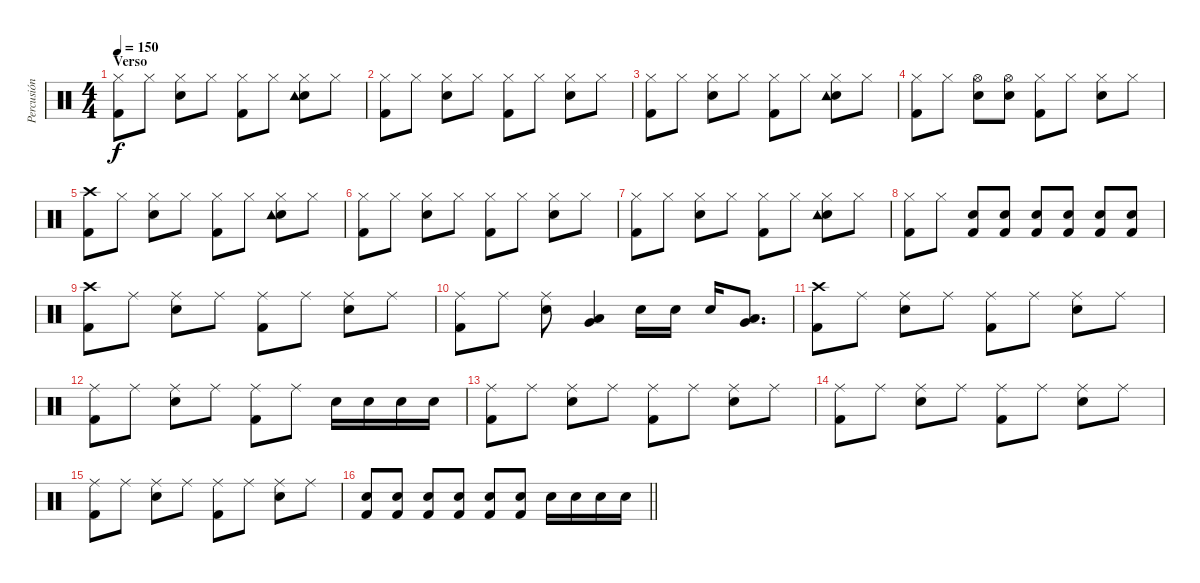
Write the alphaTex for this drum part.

\track ("Percusión" "Percusión") {instrument percussion}
\staff {score}
\articulation defaults
\ts (4 4)
\section ("" "Verso")
\tempo 150
\clef neutral
\ks c
("Hi-Hat (closed)" "Kick (hit) 2").8{dy f} "Hi-Hat (closed)".8 ("Hi-Hat (closed)" "Snare (hit) 2").8 "Hi-Hat (closed)".8 ("Hi-Hat (closed)" "Kick (hit) 2").8 "Hi-Hat (closed)".8 ("Hi-Hat (closed)" "Snare (hit) 2" "Tambourine (hit)").8 "Hi-Hat (closed)".8 |
("Hi-Hat (closed)" "Kick (hit) 2").8 "Hi-Hat (closed)".8 ("Hi-Hat (closed)" "Snare (hit) 2").8 "Hi-Hat (closed)".8 ("Hi-Hat (closed)" "Kick (hit) 2").8 "Hi-Hat (closed)".8 ("Hi-Hat (closed)" "Snare (hit) 2").8 "Hi-Hat (closed)".8 |
("Hi-Hat (closed)" "Kick (hit) 2").8 "Hi-Hat (closed)".8 ("Hi-Hat (closed)" "Snare (hit) 2").8 "Hi-Hat (closed)".8 ("Hi-Hat (closed)" "Kick (hit) 2").8 "Hi-Hat (closed)".8 ("Hi-Hat (closed)" "Snare (hit) 2" "Tambourine (hit)").8 "Hi-Hat (closed)".8 |
("Hi-Hat (closed)" "Kick (hit) 2").8 "Hi-Hat (closed)".8 ("Hi-Hat (open)" "Snare (hit) 2").8 ("Hi-Hat (open)" "Snare (hit) 2").8 ("Hi-Hat (closed)" "Kick (hit) 2").8 "Hi-Hat (closed)".8 ("Hi-Hat (closed)" "Snare (hit) 2").8 "Hi-Hat (closed)".8 |
("Crash high (hit)" "Kick (hit) 2").8 "Hi-Hat (closed)".8 ("Hi-Hat (closed)" "Snare (hit) 2").8 "Hi-Hat (closed)".8 ("Hi-Hat (closed)" "Kick (hit) 2").8 "Hi-Hat (closed)".8 ("Hi-Hat (closed)" "Snare (hit) 2" "Tambourine (hit)").8 "Hi-Hat (closed)".8 |
("Hi-Hat (closed)" "Kick (hit) 2").8 "Hi-Hat (closed)".8 ("Hi-Hat (closed)" "Snare (hit) 2").8 "Hi-Hat (closed)".8 ("Hi-Hat (closed)" "Kick (hit) 2").8 "Hi-Hat (closed)".8 ("Hi-Hat (closed)" "Snare (hit) 2").8 "Hi-Hat (closed)".8 |
("Hi-Hat (closed)" "Kick (hit) 2").8 "Hi-Hat (closed)".8 ("Hi-Hat (closed)" "Snare (hit) 2").8 "Hi-Hat (closed)".8 ("Hi-Hat (closed)" "Kick (hit) 2").8 "Hi-Hat (closed)".8 ("Hi-Hat (closed)" "Snare (hit) 2" "Tambourine (hit)").8 "Hi-Hat (closed)".8 |
("Hi-Hat (closed)" "Kick (hit) 2").8 "Hi-Hat (closed)".8 ("Kick (hit) 2" "Snare (hit) 2").8 ("Kick (hit) 2" "Snare (hit) 2").8 ("Kick (hit) 2" "Snare (hit) 2").8 ("Kick (hit) 2" "Snare (hit) 2").8 ("Kick (hit) 2" "Snare (hit) 2").8 ("Kick (hit) 2" "Snare (hit) 2").8 |
("Crash high (hit)" "Kick (hit) 2").8 "Ride (middle)".8 ("Ride (middle)" "Snare (hit) 2").8 "Ride (middle)".8 ("Ride (middle)" "Kick (hit) 2").8 "Ride (middle)".8 ("Ride (middle)" "Snare (hit) 2").8 "Ride (middle)".8 |
("Ride (middle)" "Kick (hit) 2").8 "Ride (middle)".8 ("Ride (middle)" "Snare (hit) 2").8 ("Low Floor Tom (hit)" "Very Low Tom (hit)").4 "Snare (hit) 2".16 "Snare (hit) 2".16 "Snare (hit) 2".16 ("Low Floor Tom (hit)" "Very Low Tom (hit)").8{d} |
("Crash high (hit)" "Kick (hit) 2").8 "Ride (middle)".8 ("Ride (middle)" "Snare (hit) 2").8 "Ride (middle)".8 ("Ride (middle)" "Kick (hit) 2").8 "Ride (middle)".8 ("Ride (middle)" "Snare (hit) 2").8 "Ride (middle)".8 |
("Ride (middle)" "Kick (hit) 2").8 "Ride (middle)".8 ("Ride (middle)" "Snare (hit) 2").8 "Ride (middle)".8 ("Ride (middle)" "Kick (hit) 2").8 "Ride (middle)".8 "Snare (hit) 2".16 "Snare (hit) 2".16 "Snare (hit) 2".16 "Snare (hit) 2".16 |
("Ride (middle)" "Kick (hit) 2").8 "Ride (middle)".8 ("Ride (middle)" "Snare (hit) 2").8 "Ride (middle)".8 ("Ride (middle)" "Kick (hit) 2").8 "Ride (middle)".8 ("Ride (middle)" "Snare (hit) 2").8 "Ride (middle)".8 |
("Ride (middle)" "Kick (hit) 2").8 "Ride (middle)".8 ("Ride (middle)" "Snare (hit) 2").8 "Ride (middle)".8 ("Ride (middle)" "Kick (hit) 2").8 "Ride (middle)".8 ("Ride (middle)" "Snare (hit) 2").8 "Ride (middle)".8 |
("Ride (middle)" "Kick (hit) 2").8 "Ride (middle)".8 ("Ride (middle)" "Snare (hit) 2").8 "Ride (middle)".8 ("Ride (middle)" "Kick (hit) 2").8 "Ride (middle)".8 ("Ride (middle)" "Snare (hit) 2").8 "Ride (middle)".8 |
\barLineRight lightlight
("Kick (hit) 2" "Snare (hit) 2").8 ("Kick (hit) 2" "Snare (hit) 2").8 ("Kick (hit) 2" "Snare (hit) 2").8 ("Kick (hit) 2" "Snare (hit) 2").8 ("Kick (hit) 2" "Snare (hit) 2").8 ("Kick (hit) 2" "Snare (hit) 2").8 "Snare (hit) 2".16 "Snare (hit) 2".16 "Snare (hit) 2".16 "Snare (hit) 2".16
